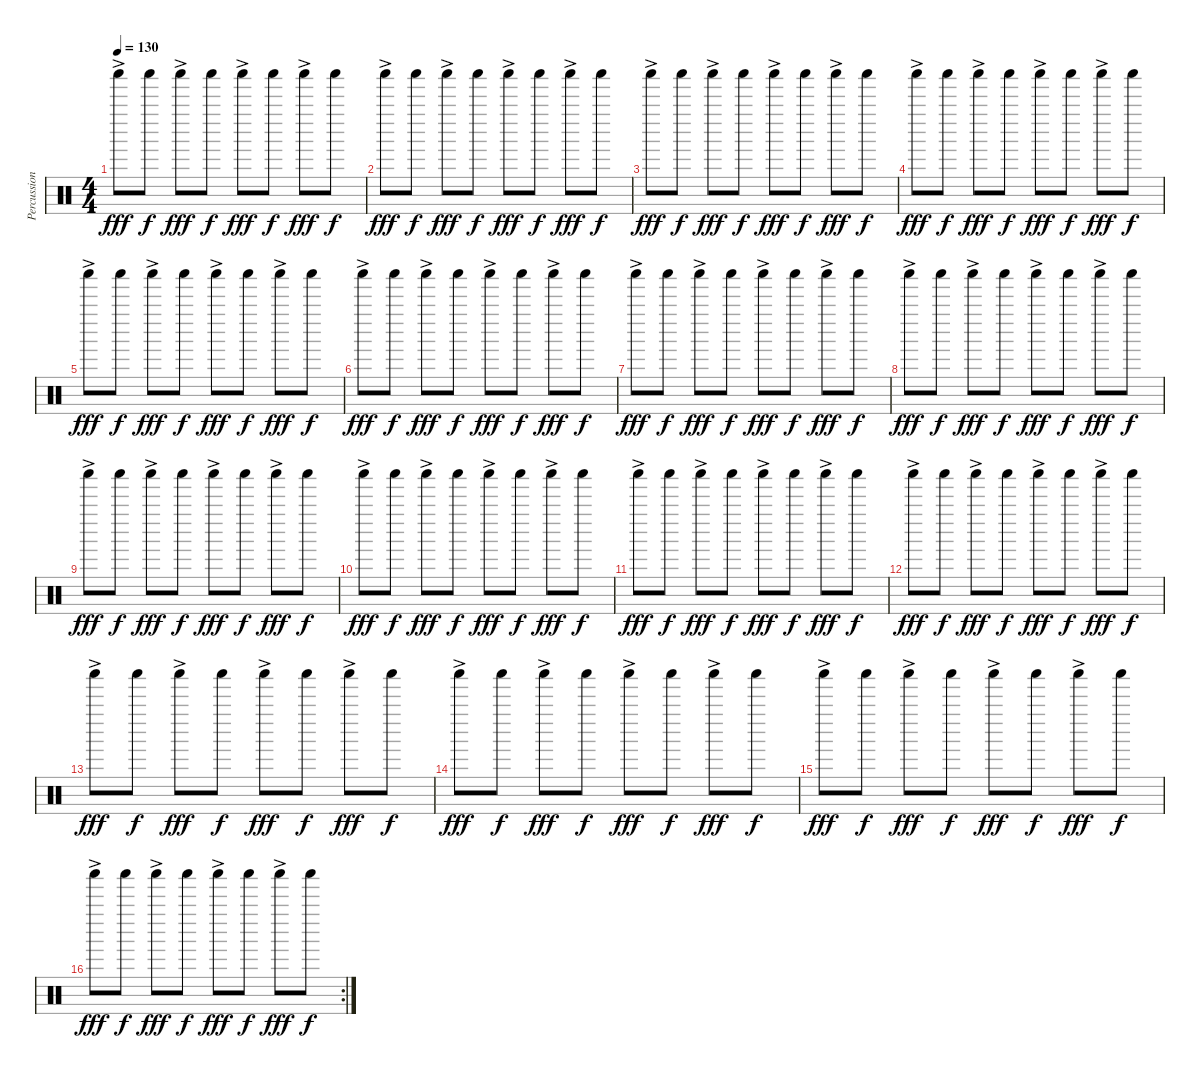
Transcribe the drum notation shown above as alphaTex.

\track ("Percussion" "Percussion") {instrument percussion}
\staff {score}
\articulation defaults
\ts (4 4)
\tempo 130
\clef neutral
\ks c "Shaker (hit)"{ac}.8{dy fff} "Shaker (hit)".8{dy f} "Shaker (hit)"{ac}.8{dy fff} "Shaker (hit)".8{dy f} "Shaker (hit)"{ac}.8{dy fff} "Shaker (hit)".8{dy f} "Shaker (hit)"{ac}.8{dy fff} "Shaker (hit)".8{dy f}
|
"Shaker (hit)"{ac}.8{dy fff} "Shaker (hit)".8{dy f} "Shaker (hit)"{ac}.8{dy fff} "Shaker (hit)".8{dy f} "Shaker (hit)"{ac}.8{dy fff} "Shaker (hit)".8{dy f} "Shaker (hit)"{ac}.8{dy fff} "Shaker (hit)".8{dy f} |
"Shaker (hit)"{ac}.8{dy fff} "Shaker (hit)".8{dy f} "Shaker (hit)"{ac}.8{dy fff} "Shaker (hit)".8{dy f} "Shaker (hit)"{ac}.8{dy fff} "Shaker (hit)".8{dy f} "Shaker (hit)"{ac}.8{dy fff} "Shaker (hit)".8{dy f} |
"Shaker (hit)"{ac}.8{dy fff} "Shaker (hit)".8{dy f} "Shaker (hit)"{ac}.8{dy fff} "Shaker (hit)".8{dy f} "Shaker (hit)"{ac}.8{dy fff} "Shaker (hit)".8{dy f} "Shaker (hit)"{ac}.8{dy fff} "Shaker (hit)".8{dy f} |
"Shaker (hit)"{ac}.8{dy fff} "Shaker (hit)".8{dy f} "Shaker (hit)"{ac}.8{dy fff} "Shaker (hit)".8{dy f} "Shaker (hit)"{ac}.8{dy fff} "Shaker (hit)".8{dy f} "Shaker (hit)"{ac}.8{dy fff} "Shaker (hit)".8{dy f} |
"Shaker (hit)"{ac}.8{dy fff} "Shaker (hit)".8{dy f} "Shaker (hit)"{ac}.8{dy fff} "Shaker (hit)".8{dy f} "Shaker (hit)"{ac}.8{dy fff} "Shaker (hit)".8{dy f} "Shaker (hit)"{ac}.8{dy fff} "Shaker (hit)".8{dy f} |
"Shaker (hit)"{ac}.8{dy fff} "Shaker (hit)".8{dy f} "Shaker (hit)"{ac}.8{dy fff} "Shaker (hit)".8{dy f} "Shaker (hit)"{ac}.8{dy fff} "Shaker (hit)".8{dy f} "Shaker (hit)"{ac}.8{dy fff} "Shaker (hit)".8{dy f} |
"Shaker (hit)"{ac}.8{dy fff} "Shaker (hit)".8{dy f} "Shaker (hit)"{ac}.8{dy fff} "Shaker (hit)".8{dy f} "Shaker (hit)"{ac}.8{dy fff} "Shaker (hit)".8{dy f} "Shaker (hit)"{ac}.8{dy fff} "Shaker (hit)".8{dy f} |
"Shaker (hit)"{ac}.8{dy fff} "Shaker (hit)".8{dy f} "Shaker (hit)"{ac}.8{dy fff} "Shaker (hit)".8{dy f} "Shaker (hit)"{ac}.8{dy fff} "Shaker (hit)".8{dy f} "Shaker (hit)"{ac}.8{dy fff} "Shaker (hit)".8{dy f} |
"Shaker (hit)"{ac}.8{dy fff} "Shaker (hit)".8{dy f} "Shaker (hit)"{ac}.8{dy fff} "Shaker (hit)".8{dy f} "Shaker (hit)"{ac}.8{dy fff} "Shaker (hit)".8{dy f} "Shaker (hit)"{ac}.8{dy fff} "Shaker (hit)".8{dy f} |
"Shaker (hit)"{ac}.8{dy fff} "Shaker (hit)".8{dy f} "Shaker (hit)"{ac}.8{dy fff} "Shaker (hit)".8{dy f} "Shaker (hit)"{ac}.8{dy fff} "Shaker (hit)".8{dy f} "Shaker (hit)"{ac}.8{dy fff} "Shaker (hit)".8{dy f} |
"Shaker (hit)"{ac}.8{dy fff} "Shaker (hit)".8{dy f} "Shaker (hit)"{ac}.8{dy fff} "Shaker (hit)".8{dy f} "Shaker (hit)"{ac}.8{dy fff} "Shaker (hit)".8{dy f} "Shaker (hit)"{ac}.8{dy fff} "Shaker (hit)".8{dy f} |
"Shaker (hit)"{ac}.8{dy fff} "Shaker (hit)".8{dy f} "Shaker (hit)"{ac}.8{dy fff} "Shaker (hit)".8{dy f} "Shaker (hit)"{ac}.8{dy fff} "Shaker (hit)".8{dy f} "Shaker (hit)"{ac}.8{dy fff} "Shaker (hit)".8{dy f} |
"Shaker (hit)"{ac}.8{dy fff} "Shaker (hit)".8{dy f} "Shaker (hit)"{ac}.8{dy fff} "Shaker (hit)".8{dy f} "Shaker (hit)"{ac}.8{dy fff} "Shaker (hit)".8{dy f} "Shaker (hit)"{ac}.8{dy fff} "Shaker (hit)".8{dy f} |
"Shaker (hit)"{ac}.8{dy fff} "Shaker (hit)".8{dy f} "Shaker (hit)"{ac}.8{dy fff} "Shaker (hit)".8{dy f} "Shaker (hit)"{ac}.8{dy fff} "Shaker (hit)".8{dy f} "Shaker (hit)"{ac}.8{dy fff} "Shaker (hit)".8{dy f} |
\rc 2 "Shaker (hit)"{ac}.8{dy fff} "Shaker (hit)".8{dy f} "Shaker (hit)"{ac}.8{dy fff} "Shaker (hit)".8{dy f} "Shaker (hit)"{ac}.8{dy fff} "Shaker (hit)".8{dy f} "Shaker (hit)"{ac}.8{dy fff} "Shaker (hit)".8{dy f}
